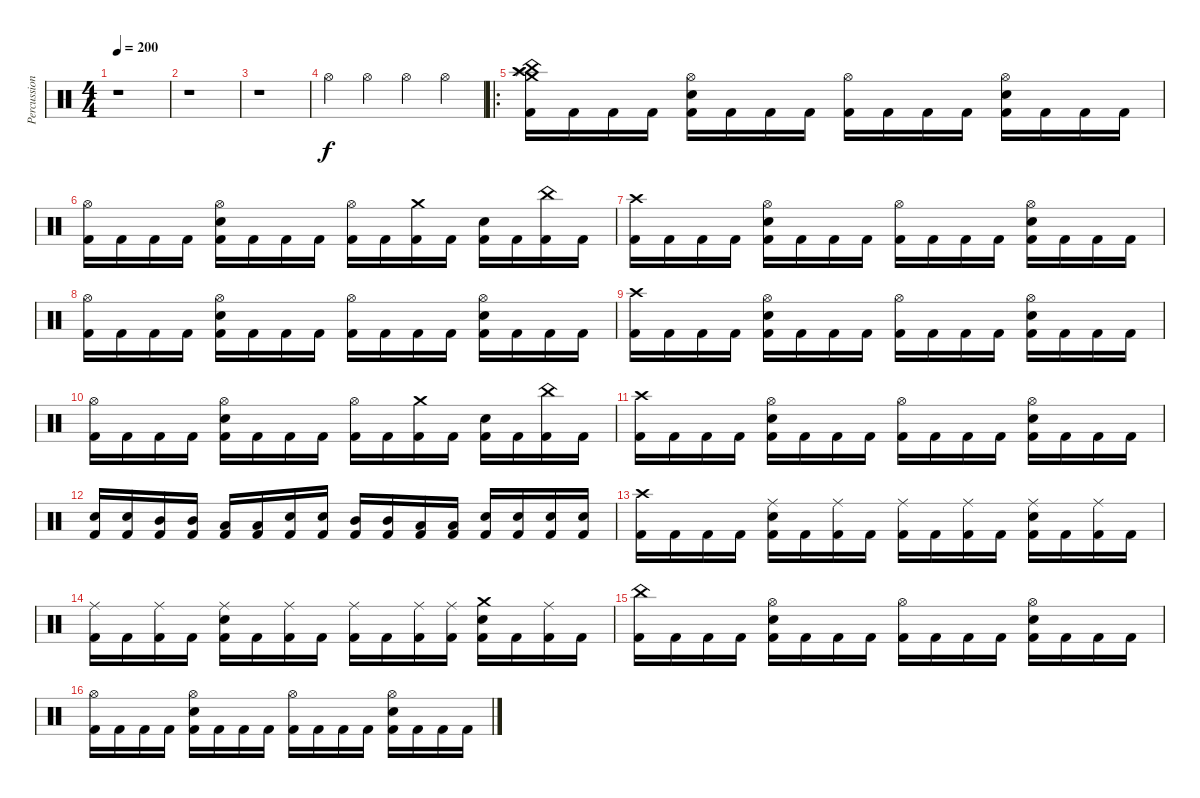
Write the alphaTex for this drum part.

\track ("Percussion" "Percussion") {instrument percussion}
\staff {score}
\articulation defaults
\ts (4 4)
\tempo 200
\clef neutral
\ks c
r.1{dy f} |
r.1 |
r.1 |
"Hi-Hat (open)".4 "Hi-Hat (open)".4 "Hi-Hat (open)".4 "Hi-Hat (open)".4 |
\ro
("Crash high (hit)" "Crash medium (hit)" "Splash (hit)" "China (hit)" "Kick (hit) 2").16 "Kick (hit) 2".16 "Kick (hit) 2".16 "Kick (hit) 2".16 ("Hi-Hat (open)" "Electric Snare (hit)" "Kick (hit) 2").16 "Kick (hit) 2".16 "Kick (hit) 2".16 "Kick (hit) 2".16 ("Hi-Hat (open)" "Kick (hit) 2").16 "Kick (hit) 2".16 "Kick (hit) 2".16 "Kick (hit) 2".16 ("Hi-Hat (open)" "Electric Snare (hit)" "Kick (hit) 2").16 "Kick (hit) 2".16 "Kick (hit) 2".16 "Kick (hit) 2".16 |
("Hi-Hat (open)" "Kick (hit) 2").16 "Kick (hit) 2".16 "Kick (hit) 2".16 "Kick (hit) 2".16 ("Hi-Hat (open)" "Electric Snare (hit)" "Kick (hit) 2").16 "Kick (hit) 2".16 "Kick (hit) 2".16 "Kick (hit) 2".16 ("Hi-Hat (open)" "Kick (hit) 2").16 "Kick (hit) 2".16 ("Crash medium (hit)" "Kick (hit) 2").16 "Kick (hit) 2".16 ("Electric Snare (hit)" "Kick (hit) 2").16 "Kick (hit) 2".16 ("China (hit)" "Kick (hit) 2").16 "Kick (hit) 2".16 |
("Crash high (hit)" "Kick (hit) 2").16 "Kick (hit) 2".16 "Kick (hit) 2".16 "Kick (hit) 2".16 ("Hi-Hat (open)" "Electric Snare (hit)" "Kick (hit) 2").16 "Kick (hit) 2".16 "Kick (hit) 2".16 "Kick (hit) 2".16 ("Hi-Hat (open)" "Kick (hit) 2").16 "Kick (hit) 2".16 "Kick (hit) 2".16 "Kick (hit) 2".16 ("Hi-Hat (open)" "Electric Snare (hit)" "Kick (hit) 2").16 "Kick (hit) 2".16 "Kick (hit) 2".16 "Kick (hit) 2".16 |
("Hi-Hat (open)" "Kick (hit) 2").16 "Kick (hit) 2".16 "Kick (hit) 2".16 "Kick (hit) 2".16 ("Hi-Hat (open)" "Electric Snare (hit)" "Kick (hit) 2").16 "Kick (hit) 2".16 "Kick (hit) 2".16 "Kick (hit) 2".16 ("Hi-Hat (open)" "Kick (hit) 2").16 "Kick (hit) 2".16 "Kick (hit) 2".16 "Kick (hit) 2".16 ("Hi-Hat (open)" "Electric Snare (hit)" "Kick (hit) 2").16 "Kick (hit) 2".16 "Kick (hit) 2".16 "Kick (hit) 2".16 |
("Crash high (hit)" "Kick (hit) 2").16 "Kick (hit) 2".16 "Kick (hit) 2".16 "Kick (hit) 2".16 ("Hi-Hat (open)" "Electric Snare (hit)" "Kick (hit) 2").16 "Kick (hit) 2".16 "Kick (hit) 2".16 "Kick (hit) 2".16 ("Hi-Hat (open)" "Kick (hit) 2").16 "Kick (hit) 2".16 "Kick (hit) 2".16 "Kick (hit) 2".16 ("Hi-Hat (open)" "Electric Snare (hit)" "Kick (hit) 2").16 "Kick (hit) 2".16 "Kick (hit) 2".16 "Kick (hit) 2".16 |
("Hi-Hat (open)" "Kick (hit) 2").16 "Kick (hit) 2".16 "Kick (hit) 2".16 "Kick (hit) 2".16 ("Hi-Hat (open)" "Electric Snare (hit)" "Kick (hit) 2").16 "Kick (hit) 2".16 "Kick (hit) 2".16 "Kick (hit) 2".16 ("Hi-Hat (open)" "Kick (hit) 2").16 "Kick (hit) 2".16 ("Crash medium (hit)" "Kick (hit) 2").16 "Kick (hit) 2".16 ("Electric Snare (hit)" "Kick (hit) 2").16 "Kick (hit) 2".16 ("China (hit)" "Kick (hit) 2").16 "Kick (hit) 2".16 |
("Crash high (hit)" "Kick (hit) 2").16 "Kick (hit) 2".16 "Kick (hit) 2".16 "Kick (hit) 2".16 ("Hi-Hat (open)" "Electric Snare (hit)" "Kick (hit) 2").16 "Kick (hit) 2".16 "Kick (hit) 2".16 "Kick (hit) 2".16 ("Hi-Hat (open)" "Kick (hit) 2").16 "Kick (hit) 2".16 "Kick (hit) 2".16 "Kick (hit) 2".16 ("Hi-Hat (open)" "Electric Snare (hit)" "Kick (hit) 2").16 "Kick (hit) 2".16 "Kick (hit) 2".16 "Kick (hit) 2".16 |
("Electric Snare (hit)" "Kick (hit) 2").16 ("Electric Snare (hit)" "Kick (hit) 2").16 ("Mid Tom (hit)" "Kick (hit) 2").16 ("Mid Tom (hit)" "Kick (hit) 2").16 ("Low Tom (hit)" "Kick (hit) 2").16 ("Low Tom (hit)" "Kick (hit) 2").16 ("Electric Snare (hit)" "Kick (hit) 2").16 ("Electric Snare (hit)" "Kick (hit) 2").16 ("Mid Tom (hit)" "Kick (hit) 2").16 ("Mid Tom (hit)" "Kick (hit) 2").16 ("Low Tom (hit)" "Kick (hit) 2").16 ("Low Tom (hit)" "Kick (hit) 2").16 ("Electric Snare (hit)" "Kick (hit) 2").16 ("Electric Snare (hit)" "Kick (hit) 2").16 ("Electric Snare (hit)" "Kick (hit) 2").16 ("Electric Snare (hit)" "Kick (hit) 2").16 |
("Crash high (hit)" "Kick (hit) 2").16 "Kick (hit) 2".16 "Kick (hit) 2".16 "Kick (hit) 2".16 ("Ride (middle)" "Electric Snare (hit)" "Kick (hit) 2").16 "Kick (hit) 2".16 ("Ride (middle)" "Kick (hit) 2").16 "Kick (hit) 2".16 ("Ride (middle)" "Kick (hit) 2").16 "Kick (hit) 2".16 ("Ride (middle)" "Kick (hit) 2").16 "Kick (hit) 2".16 ("Ride (middle)" "Electric Snare (hit)" "Kick (hit) 2").16 "Kick (hit) 2".16 ("Ride (middle)" "Kick (hit) 2").16 "Kick (hit) 2".16 |
("Ride (middle)" "Kick (hit) 2").16 "Kick (hit) 2".16 ("Ride (middle)" "Kick (hit) 2").16 "Kick (hit) 2".16 ("Ride (middle)" "Electric Snare (hit)" "Kick (hit) 2").16 "Kick (hit) 2".16 ("Ride (middle)" "Kick (hit) 2").16 "Kick (hit) 2".16 ("Ride (middle)" "Kick (hit) 2").16 "Kick (hit) 2".16 ("Ride (middle)" "Kick (hit) 2").16 ("Ride (middle)" "Kick (hit) 2").16 ("Crash medium (hit)" "Electric Snare (hit)" "Kick (hit) 2").16 "Kick (hit) 2".16 ("Ride (middle)" "Kick (hit) 2").16 "Kick (hit) 2".16 |
("China (hit)" "Kick (hit) 2").16 "Kick (hit) 2".16 "Kick (hit) 2".16 "Kick (hit) 2".16 ("Hi-Hat (open)" "Electric Snare (hit)" "Kick (hit) 2").16 "Kick (hit) 2".16 "Kick (hit) 2".16 "Kick (hit) 2".16 ("Hi-Hat (open)" "Kick (hit) 2").16 "Kick (hit) 2".16 "Kick (hit) 2".16 "Kick (hit) 2".16 ("Hi-Hat (open)" "Electric Snare (hit)" "Kick (hit) 2").16 "Kick (hit) 2".16 "Kick (hit) 2".16 "Kick (hit) 2".16 |
("Hi-Hat (open)" "Kick (hit) 2").16 "Kick (hit) 2".16 "Kick (hit) 2".16 "Kick (hit) 2".16 ("Hi-Hat (open)" "Electric Snare (hit)" "Kick (hit) 2").16 "Kick (hit) 2".16 "Kick (hit) 2".16 "Kick (hit) 2".16 ("Hi-Hat (open)" "Kick (hit) 2").16 "Kick (hit) 2".16 "Kick (hit) 2".16 "Kick (hit) 2".16 ("Hi-Hat (open)" "Electric Snare (hit)" "Kick (hit) 2").16 "Kick (hit) 2".16 "Kick (hit) 2".16 "Kick (hit) 2".16
